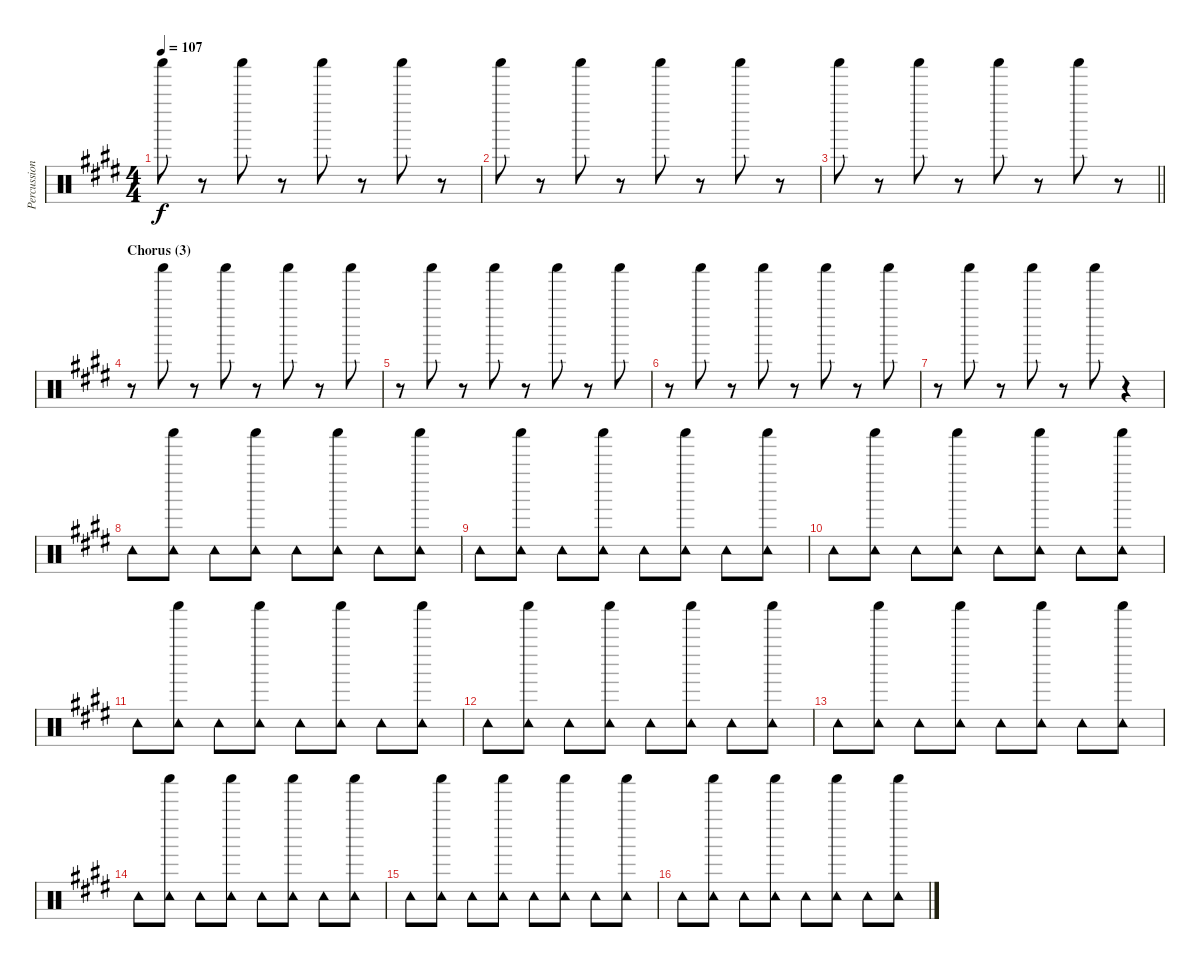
\track ("Percussion" "Percussion") {instrument percussion}
\staff {score}
\articulation defaults
\ts (4 4)
\tempo 107
\clef neutral
\ks e "Shaker (hit)".8{dy f}
r.8 "Shaker (hit)".8 r.8 "Shaker (hit)".8 r.8 "Shaker (hit)".8 r.8 |
"Shaker (hit)".8 r.8 "Shaker (hit)".8 r.8 "Shaker (hit)".8 r.8 "Shaker (hit)".8 r.8 |
\barLineRight lightlight "Shaker (hit)".8
r.8 "Shaker (hit)".8 r.8 "Shaker (hit)".8 r.8 "Shaker (hit)".8 r.8 |
\section ("" "Chorus (3)")
r.8 "Shaker (hit)".8 r.8 "Shaker (hit)".8 r.8 "Shaker (hit)".8 r.8 "Shaker (hit)".8 |
r.8 "Shaker (hit)".8 r.8 "Shaker (hit)".8 r.8 "Shaker (hit)".8 r.8 "Shaker (hit)".8 |
r.8 "Shaker (hit)".8 r.8 "Shaker (hit)".8 r.8 "Shaker (hit)".8 r.8 "Shaker (hit)".8 |
r.8 "Shaker (hit)".8 r.8 "Shaker (hit)".8 r.8 "Shaker (hit)".8 r.4 |
"Tambourine (hit)".8 ("Shaker (hit)" "Tambourine (hit)").8 "Tambourine (hit)".8 ("Shaker (hit)" "Tambourine (hit)").8 "Tambourine (hit)".8 ("Shaker (hit)" "Tambourine (hit)").8 "Tambourine (hit)".8 ("Shaker (hit)" "Tambourine (hit)").8 |
"Tambourine (hit)".8 ("Shaker (hit)" "Tambourine (hit)").8 "Tambourine (hit)".8 ("Shaker (hit)" "Tambourine (hit)").8 "Tambourine (hit)".8 ("Shaker (hit)" "Tambourine (hit)").8 "Tambourine (hit)".8 ("Shaker (hit)" "Tambourine (hit)").8 |
"Tambourine (hit)".8 ("Shaker (hit)" "Tambourine (hit)").8 "Tambourine (hit)".8 ("Shaker (hit)" "Tambourine (hit)").8 "Tambourine (hit)".8 ("Shaker (hit)" "Tambourine (hit)").8 "Tambourine (hit)".8 ("Shaker (hit)" "Tambourine (hit)").8 |
"Tambourine (hit)".8 ("Shaker (hit)" "Tambourine (hit)").8 "Tambourine (hit)".8 ("Shaker (hit)" "Tambourine (hit)").8 "Tambourine (hit)".8 ("Shaker (hit)" "Tambourine (hit)").8 "Tambourine (hit)".8 ("Shaker (hit)" "Tambourine (hit)").8 |
"Tambourine (hit)".8 ("Shaker (hit)" "Tambourine (hit)").8 "Tambourine (hit)".8 ("Shaker (hit)" "Tambourine (hit)").8 "Tambourine (hit)".8 ("Shaker (hit)" "Tambourine (hit)").8 "Tambourine (hit)".8 ("Shaker (hit)" "Tambourine (hit)").8 |
"Tambourine (hit)".8 ("Shaker (hit)" "Tambourine (hit)").8 "Tambourine (hit)".8 ("Shaker (hit)" "Tambourine (hit)").8 "Tambourine (hit)".8 ("Shaker (hit)" "Tambourine (hit)").8 "Tambourine (hit)".8 ("Shaker (hit)" "Tambourine (hit)").8 |
"Tambourine (hit)".8 ("Shaker (hit)" "Tambourine (hit)").8 "Tambourine (hit)".8 ("Shaker (hit)" "Tambourine (hit)").8 "Tambourine (hit)".8 ("Shaker (hit)" "Tambourine (hit)").8 "Tambourine (hit)".8 ("Shaker (hit)" "Tambourine (hit)").8 |
"Tambourine (hit)".8 ("Shaker (hit)" "Tambourine (hit)").8 "Tambourine (hit)".8 ("Shaker (hit)" "Tambourine (hit)").8 "Tambourine (hit)".8 ("Shaker (hit)" "Tambourine (hit)").8 "Tambourine (hit)".8 ("Shaker (hit)" "Tambourine (hit)").8 |
"Tambourine (hit)".8 ("Shaker (hit)" "Tambourine (hit)").8 "Tambourine (hit)".8 ("Shaker (hit)" "Tambourine (hit)").8 "Tambourine (hit)".8 ("Shaker (hit)" "Tambourine (hit)").8 "Tambourine (hit)".8 ("Shaker (hit)" "Tambourine (hit)").8
